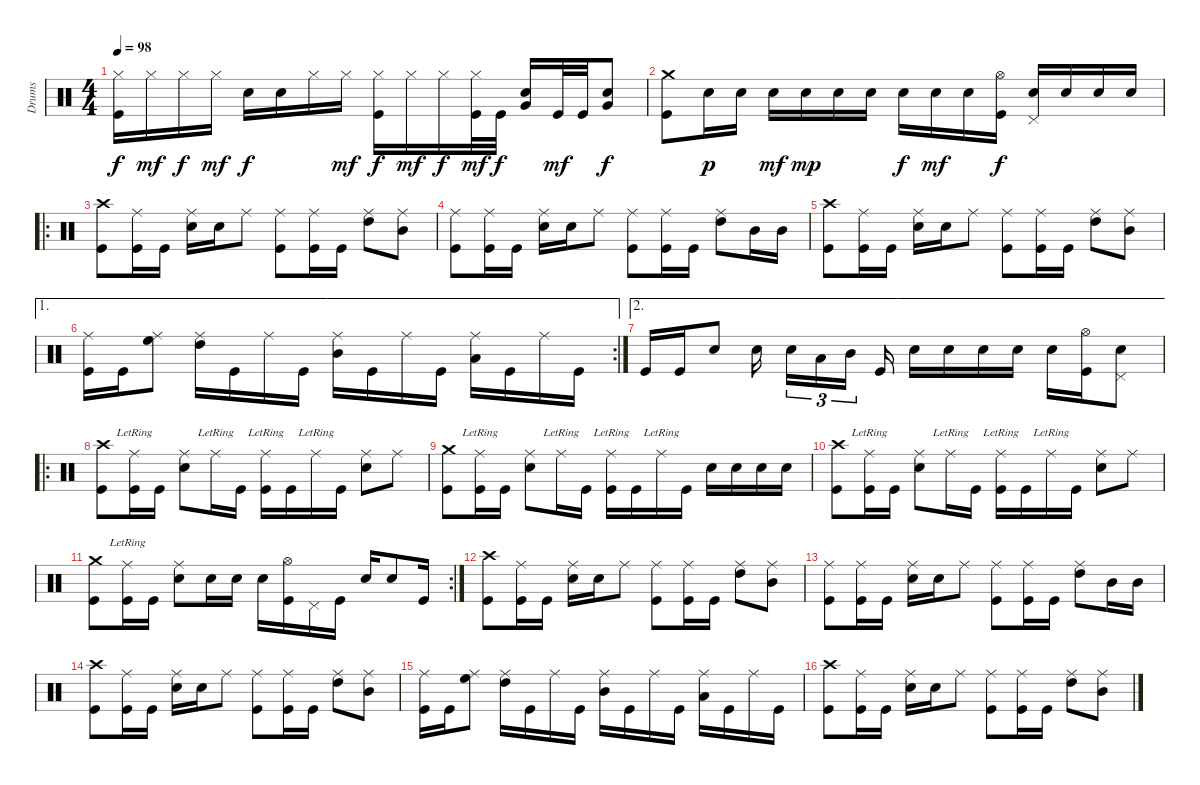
\track ("Drums" "Drums") {instrument percussion}
\staff {score}
\articulation defaults
\ts (4 4)
\tempo 98
\clef neutral
\ks c
("Hi-Hat (closed)" "Kick (hit)").16{dy f} "Hi-Hat (closed)".16{dy mf} "Hi-Hat (closed)".16{dy f} "Hi-Hat (closed)".16{dy mf} "Electric Snare (hit)".16{dy f} "Electric Snare (hit)".16 "Hi-Hat (closed)".16 "Hi-Hat (closed)".16{dy mf} ("Hi-Hat (closed)" "Kick (hit)").16{dy f} "Hi-Hat (closed)".16{dy mf} "Hi-Hat (closed)".16{dy f} ("Hi-Hat (closed)" "Kick (hit)").32{dy mf} "Kick (hit)".32{dy f} ("Electric Snare (hit)" "Very Low Tom (hit)").16 "Kick (hit)".32{dy mf} "Kick (hit)".32 ("Electric Snare (hit)" "Very Low Tom (hit)").8{dy f} |
("Crash medium (hit)" "Kick (hit)").8 "Electric Snare (hit)".16{dy p} "Electric Snare (hit)".16 "Electric Snare (hit)".16{dy mf} "Electric Snare (hit)".16{dy mp} "Electric Snare (hit)".16 "Electric Snare (hit)".16 "Electric Snare (hit)".16{dy f} "Electric Snare (hit)".16{dy mf} "Electric Snare (hit)".16 ("Hi-Hat (open)" "Kick (hit)").16{dy f} ("Electric Snare (hit)" "Pedal Hi-Hat (hit)").16 "Electric Snare (hit)".16 "Electric Snare (hit)".16 "Electric Snare (hit)".16 |
\ro
("Crash high (hit)" "Kick (hit)").8 ("Ride (middle)" "Kick (hit)").16 "Kick (hit)".16 ("Ride (middle)" "Electric Snare (hit)").16 "Electric Snare (hit)".16 "Ride (middle)".8 ("Ride (middle)" "Kick (hit)").8 ("Ride (middle)" "Kick (hit)").16 "Kick (hit)".16 ("Ride (middle)" "High Tom (hit)").8 ("Ride (middle)" "Mid Tom (hit)").8 |
("Ride (middle)" "Kick (hit)").8 ("Ride (middle)" "Kick (hit)").16 "Kick (hit)".16 ("Ride (middle)" "Electric Snare (hit)").16 "Electric Snare (hit)".16 "Ride (middle)".8 ("Ride (middle)" "Kick (hit)").8 ("Ride (middle)" "Kick (hit)").16 "Kick (hit)".16 ("Ride (middle)" "High Tom (hit)").8 "Mid Tom (hit)".16 "Mid Tom (hit)".16 |
("Crash high (hit)" "Kick (hit)").8 ("Ride (middle)" "Kick (hit)").16 "Kick (hit)".16 ("Ride (middle)" "Electric Snare (hit)").16 "Electric Snare (hit)".16 "Ride (middle)".8 ("Ride (middle)" "Kick (hit)").8 ("Ride (middle)" "Kick (hit)").16 "Kick (hit)".16 ("Ride (middle)" "High Tom (hit)").8 ("Ride (middle)" "Mid Tom (hit)").8 |
\ae 1
\rc 2
("Ride (middle)" "Kick (hit)").16 "Kick (hit)".16 ("Ride (middle)" "High Floor Tom (hit)").8 ("Ride (middle)" "High Tom (hit)").16 "Kick (hit)".16 "Ride (middle)".16 "Kick (hit)".16 ("Ride (middle)" "Mid Tom (hit)").16 "Kick (hit)".16 "Ride (middle)".16 "Kick (hit)".16 ("Ride (middle)" "Low Tom (hit)").16 "Kick (hit)".16 "Ride (middle)".16 "Kick (hit)".16 |
\ae 2 "Kick (hit)".16 "Kick (hit)".16 "Electric Snare (hit)".8 "Electric Snare (hit)".16 "Electric Snare (hit)".16{tu (3 2)} "Low Tom (hit)".16{tu (3 2)} "Mid Tom (hit)".16{tu (3 2)} "Kick (hit)".16 "Electric Snare (hit)".16 "Electric Snare (hit)".16 "Electric Snare (hit)".16 "Electric Snare (hit)".16 "Electric Snare (hit)".16
("Hi-Hat (open)" "Kick (hit)").16 ("Electric Snare (hit)" "Pedal Hi-Hat (hit)").8 |
\ro
("Crash high (hit)" "Kick (hit)").8 ("Ride (middle)"{lr} "Kick (hit)").16 "Kick (hit)".16 ("Ride (middle)" "Electric Snare (hit)").8 "Ride (middle)"{lr}.16 "Kick (hit)".16 ("Ride (middle)"{lr} "Kick (hit)").16 "Kick (hit)".16 "Ride (middle)"{lr}.16 "Kick (hit)".16 ("Ride (middle)" "Electric Snare (hit)").8 "Ride (middle)".8 |
("Crash medium (hit)" "Kick (hit)").8 ("Ride (middle)"{lr} "Kick (hit)").16 "Kick (hit)".16 ("Ride (middle)" "Electric Snare (hit)").8 "Ride (middle)"{lr}.16 "Kick (hit)".16 ("Ride (middle)"{lr} "Kick (hit)").16 "Kick (hit)".16 "Ride (middle)"{lr}.16 "Kick (hit)".16 "Electric Snare (hit)".16 "Electric Snare (hit)".16 "Electric Snare (hit)".16 "Electric Snare (hit)".16 |
("Crash high (hit)" "Kick (hit)").8 ("Ride (middle)"{lr} "Kick (hit)").16 "Kick (hit)".16 ("Ride (middle)" "Electric Snare (hit)").8 "Ride (middle)"{lr}.16 "Kick (hit)".16 ("Ride (middle)"{lr} "Kick (hit)").16 "Kick (hit)".16 "Ride (middle)"{lr}.16 "Kick (hit)".16 ("Ride (middle)" "Electric Snare (hit)").8 "Ride (middle)".8 |
\rc 2
("Crash medium (hit)" "Kick (hit)").8 ("Ride (middle)"{lr} "Kick (hit)").16 "Kick (hit)".16 ("Ride (middle)" "Electric Snare (hit)").8 "Electric Snare (hit)".16 "Electric Snare (hit)".16 "Electric Snare (hit)".16 ("Hi-Hat (open)" "Kick (hit)").16 "Pedal Hi-Hat (hit)".16 "Kick (hit)".16 "Electric Snare (hit)".16 "Electric Snare (hit)".8 "Kick (hit)".16 |
("Crash high (hit)" "Kick (hit)").8 ("Ride (middle)" "Kick (hit)").16 "Kick (hit)".16 ("Ride (middle)" "Electric Snare (hit)").16 "Electric Snare (hit)".16 "Ride (middle)".8 ("Ride (middle)" "Kick (hit)").8 ("Ride (middle)" "Kick (hit)").16 "Kick (hit)".16 ("Ride (middle)" "High Tom (hit)").8 ("Ride (middle)" "Mid Tom (hit)").8 |
("Ride (middle)" "Kick (hit)").8 ("Ride (middle)" "Kick (hit)").16 "Kick (hit)".16 ("Ride (middle)" "Electric Snare (hit)").16 "Electric Snare (hit)".16 "Ride (middle)".8 ("Ride (middle)" "Kick (hit)").8 ("Ride (middle)" "Kick (hit)").16 "Kick (hit)".16 ("Ride (middle)" "High Tom (hit)").8 "Mid Tom (hit)".16 "Mid Tom (hit)".16 |
("Crash high (hit)" "Kick (hit)").8 ("Ride (middle)" "Kick (hit)").16 "Kick (hit)".16 ("Ride (middle)" "Electric Snare (hit)").16 "Electric Snare (hit)".16 "Ride (middle)".8 ("Ride (middle)" "Kick (hit)").8 ("Ride (middle)" "Kick (hit)").16 "Kick (hit)".16 ("Ride (middle)" "High Tom (hit)").8 ("Ride (middle)" "Mid Tom (hit)").8 |
("Ride (middle)" "Kick (hit)").16 "Kick (hit)".16 ("Ride (middle)" "High Floor Tom (hit)").8 ("Ride (middle)" "High Tom (hit)").16 "Kick (hit)".16 "Ride (middle)".16 "Kick (hit)".16 ("Ride (middle)" "Mid Tom (hit)").16 "Kick (hit)".16 "Ride (middle)".16 "Kick (hit)".16 ("Ride (middle)" "Low Tom (hit)").16 "Kick (hit)".16 "Ride (middle)".16 "Kick (hit)".16 |
("Crash high (hit)" "Kick (hit)").8 ("Ride (middle)" "Kick (hit)").16 "Kick (hit)".16 ("Ride (middle)" "Electric Snare (hit)").16 "Electric Snare (hit)".16 "Ride (middle)".8 ("Ride (middle)" "Kick (hit)").8 ("Ride (middle)" "Kick (hit)").16 "Kick (hit)".16 ("Ride (middle)" "High Tom (hit)").8 ("Ride (middle)" "Mid Tom (hit)").8
